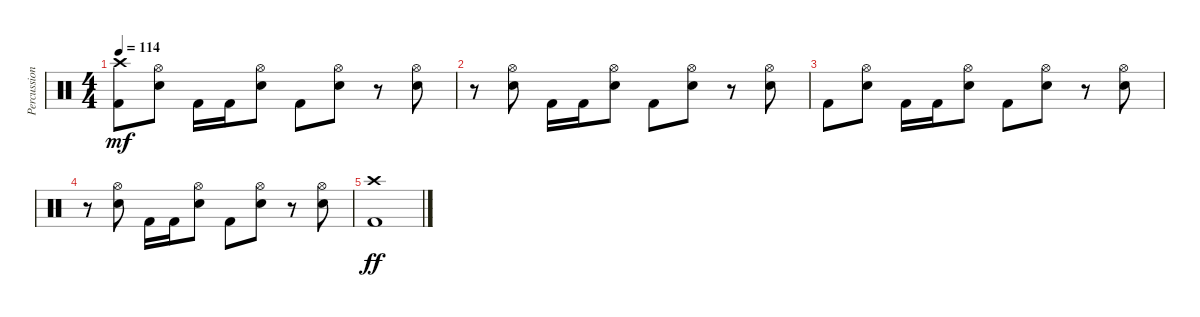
\track ("Percussion" "Percussion") {instrument percussion}
\staff {score}
\articulation defaults
\ts (4 4)
\tempo 114
\clef neutral
\ks c
("Crash high (hit)" "Kick (hit) 2").8{dy mf} ("Hi-Hat (open)" "Snare (hit) 2").8 "Kick (hit) 2".16 "Kick (hit) 2".16 ("Hi-Hat (open)" "Snare (hit) 2").8 "Kick (hit) 2".8 ("Hi-Hat (open)" "Snare (hit) 2").8 r.8 ("Hi-Hat (open)" "Snare (hit) 2").8 |
r.8 ("Hi-Hat (open)" "Snare (hit) 2").8 "Kick (hit) 2".16 "Kick (hit) 2".16 ("Hi-Hat (open)" "Snare (hit) 2").8 "Kick (hit) 2".8 ("Hi-Hat (open)" "Snare (hit) 2").8 r.8 ("Hi-Hat (open)" "Snare (hit) 2").8 |
"Kick (hit) 2".8 ("Hi-Hat (open)" "Snare (hit) 2").8 "Kick (hit) 2".16 "Kick (hit) 2".16 ("Hi-Hat (open)" "Snare (hit) 2").8 "Kick (hit) 2".8 ("Hi-Hat (open)" "Snare (hit) 2").8 r.8 ("Hi-Hat (open)" "Snare (hit) 2").8 |
r.8 ("Hi-Hat (open)" "Snare (hit) 2").8 "Kick (hit) 2".16 "Kick (hit) 2".16 ("Hi-Hat (open)" "Snare (hit) 2").8 "Kick (hit) 2".8 ("Hi-Hat (open)" "Snare (hit) 2").8 r.8 ("Hi-Hat (open)" "Snare (hit) 2").8 |
("Crash high (hit)" "Kick (hit) 2").1{dy ff}
